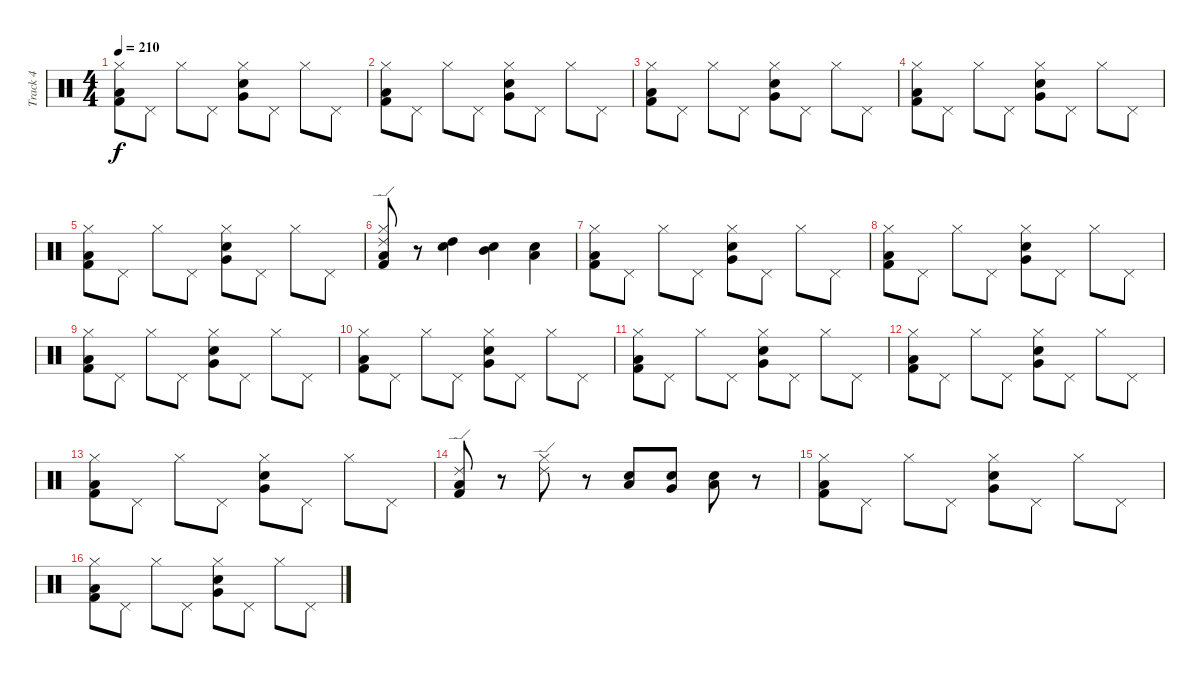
\track ("Track 4" "Track 4") {instrument percussion}
\staff {score}
\articulation defaults
\ts (4 4)
\tempo 210
\clef neutral
\ks c
("Kick (hit) 2" "Low Tom (hit)" "Hi-Hat (closed)").8{dy f} "Pedal Hi-Hat (hit)".8 "Hi-Hat (closed)".8 "Pedal Hi-Hat (hit)".8 ("Electric Snare (hit)" "Very Low Tom (hit)" "Hi-Hat (closed)").8 "Pedal Hi-Hat (hit)".8 "Hi-Hat (closed)".8 "Pedal Hi-Hat (hit)".8 |
("Kick (hit) 2" "Low Tom (hit)" "Hi-Hat (closed)").8 "Pedal Hi-Hat (hit)".8 "Hi-Hat (closed)".8 "Pedal Hi-Hat (hit)".8 ("Electric Snare (hit)" "Very Low Tom (hit)" "Hi-Hat (closed)").8 "Pedal Hi-Hat (hit)".8 "Hi-Hat (closed)".8 "Pedal Hi-Hat (hit)".8 |
("Kick (hit) 2" "Low Tom (hit)" "Hi-Hat (closed)").8 "Pedal Hi-Hat (hit)".8 "Hi-Hat (closed)".8 "Pedal Hi-Hat (hit)".8 ("Electric Snare (hit)" "Very Low Tom (hit)" "Hi-Hat (closed)").8 "Pedal Hi-Hat (hit)".8 "Hi-Hat (closed)".8 "Pedal Hi-Hat (hit)".8 |
("Kick (hit) 2" "Low Tom (hit)" "Hi-Hat (closed)").8 "Pedal Hi-Hat (hit)".8 "Hi-Hat (closed)".8 "Pedal Hi-Hat (hit)".8 ("Electric Snare (hit)" "Very Low Tom (hit)" "Hi-Hat (closed)").8 "Pedal Hi-Hat (hit)".8 "Hi-Hat (closed)".8 "Pedal Hi-Hat (hit)".8 |
("Kick (hit) 2" "Low Tom (hit)" "Hi-Hat (closed)").8 "Pedal Hi-Hat (hit)".8 "Hi-Hat (closed)".8 "Pedal Hi-Hat (hit)".8 ("Electric Snare (hit)" "Very Low Tom (hit)" "Hi-Hat (closed)").8 "Pedal Hi-Hat (hit)".8 "Hi-Hat (closed)".8 "Pedal Hi-Hat (hit)".8 |
("Kick (hit) 2" "Low Tom (hit)" "Hi-Hat (closed)" "Ride (edge) 2").8 r.8 ("Electric Snare (hit)" "High Tom (hit)").4 ("Electric Snare (hit)" "Mid Tom (hit)").4 ("Electric Snare (hit)" "Low Tom (hit)").4 |
("Kick (hit) 2" "Low Tom (hit)" "Hi-Hat (closed)").8 "Pedal Hi-Hat (hit)".8 "Hi-Hat (closed)".8 "Pedal Hi-Hat (hit)".8 ("Electric Snare (hit)" "Very Low Tom (hit)" "Hi-Hat (closed)").8 "Pedal Hi-Hat (hit)".8 "Hi-Hat (closed)".8 "Pedal Hi-Hat (hit)".8 |
("Kick (hit) 2" "Low Tom (hit)" "Hi-Hat (closed)").8 "Pedal Hi-Hat (hit)".8 "Hi-Hat (closed)".8 "Pedal Hi-Hat (hit)".8 ("Electric Snare (hit)" "Very Low Tom (hit)" "Hi-Hat (closed)").8 "Pedal Hi-Hat (hit)".8 "Hi-Hat (closed)".8 "Pedal Hi-Hat (hit)".8 |
("Kick (hit) 2" "Low Tom (hit)" "Hi-Hat (closed)").8 "Pedal Hi-Hat (hit)".8 "Hi-Hat (closed)".8 "Pedal Hi-Hat (hit)".8 ("Electric Snare (hit)" "Very Low Tom (hit)" "Hi-Hat (closed)").8 "Pedal Hi-Hat (hit)".8 "Hi-Hat (closed)".8 "Pedal Hi-Hat (hit)".8 |
("Kick (hit) 2" "Low Tom (hit)" "Hi-Hat (closed)").8 "Pedal Hi-Hat (hit)".8 "Hi-Hat (closed)".8 "Pedal Hi-Hat (hit)".8 ("Electric Snare (hit)" "Very Low Tom (hit)" "Hi-Hat (closed)").8 "Pedal Hi-Hat (hit)".8 "Hi-Hat (closed)".8 "Pedal Hi-Hat (hit)".8 |
("Kick (hit) 2" "Low Tom (hit)" "Hi-Hat (closed)").8 "Pedal Hi-Hat (hit)".8 "Hi-Hat (closed)".8 "Pedal Hi-Hat (hit)".8 ("Electric Snare (hit)" "Very Low Tom (hit)" "Hi-Hat (closed)").8 "Pedal Hi-Hat (hit)".8 "Hi-Hat (closed)".8 "Pedal Hi-Hat (hit)".8 |
("Kick (hit) 2" "Low Tom (hit)" "Hi-Hat (closed)").8 "Pedal Hi-Hat (hit)".8 "Hi-Hat (closed)".8 "Pedal Hi-Hat (hit)".8 ("Electric Snare (hit)" "Very Low Tom (hit)" "Hi-Hat (closed)").8 "Pedal Hi-Hat (hit)".8 "Hi-Hat (closed)".8 "Pedal Hi-Hat (hit)".8 |
("Kick (hit) 2" "Low Tom (hit)" "Hi-Hat (closed)").8 "Pedal Hi-Hat (hit)".8 "Hi-Hat (closed)".8 "Pedal Hi-Hat (hit)".8 ("Electric Snare (hit)" "Very Low Tom (hit)" "Hi-Hat (closed)").8 "Pedal Hi-Hat (hit)".8 "Hi-Hat (closed)".8 "Pedal Hi-Hat (hit)".8 |
("Kick (hit) 2" "Low Tom (hit)" "Ride (edge) 2").8 r.8 ("Hi-Hat (closed)" "Ride (edge) 2").8 r.8 ("Electric Snare (hit)" "Low Tom (hit)").8 ("Electric Snare (hit)" "Very Low Tom (hit)").8 ("Electric Snare (hit)" "Low Floor Tom (hit)").8 r.8 |
("Kick (hit) 2" "Low Tom (hit)" "Hi-Hat (closed)").8 "Pedal Hi-Hat (hit)".8 "Hi-Hat (closed)".8 "Pedal Hi-Hat (hit)".8 ("Electric Snare (hit)" "Very Low Tom (hit)" "Hi-Hat (closed)").8 "Pedal Hi-Hat (hit)".8 "Hi-Hat (closed)".8 "Pedal Hi-Hat (hit)".8 |
("Kick (hit) 2" "Low Tom (hit)" "Hi-Hat (closed)").8 "Pedal Hi-Hat (hit)".8 "Hi-Hat (closed)".8 "Pedal Hi-Hat (hit)".8 ("Electric Snare (hit)" "Very Low Tom (hit)" "Hi-Hat (closed)").8 "Pedal Hi-Hat (hit)".8 "Hi-Hat (closed)".8 "Pedal Hi-Hat (hit)".8
